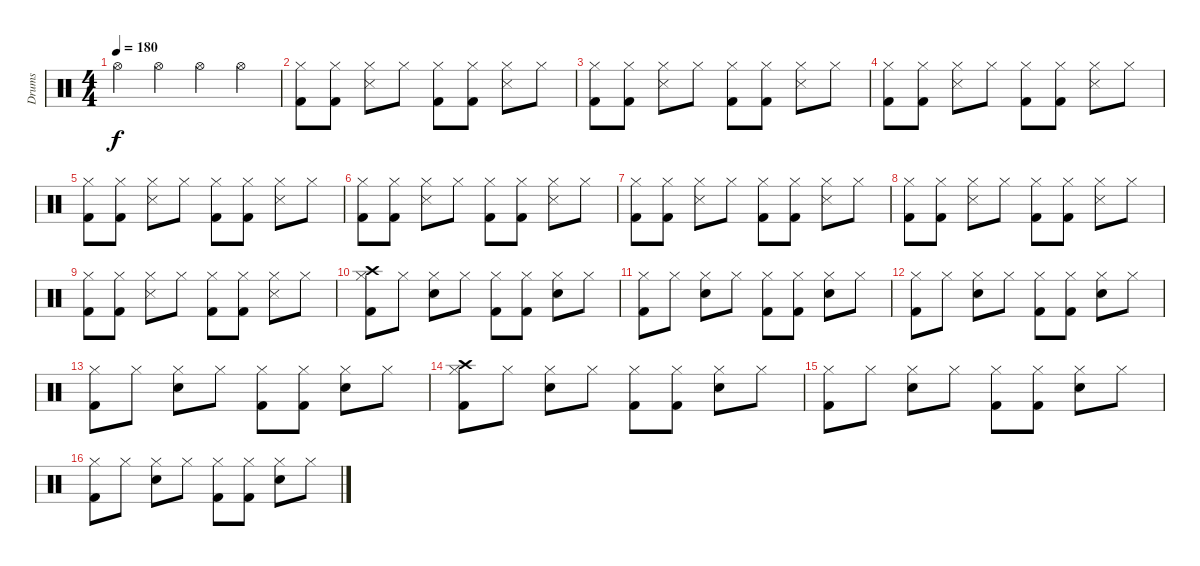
\track ("Drums" "Drums") {instrument percussion}
\staff {score}
\articulation defaults
\ts (4 4)
\tempo 180
\clef neutral
\ks c "Hi-Hat (open)".4{dy f} "Hi-Hat (open)".4 "Hi-Hat (open)".4 "Hi-Hat (open)".4
|
("Hi-Hat (closed)" "Kick (hit) 2").8 ("Hi-Hat (closed)" "Kick (hit) 2").8 ("Hi-Hat (closed)" "Snare (side stick) 3").8 "Hi-Hat (closed)".8 ("Hi-Hat (closed)" "Kick (hit) 2").8 ("Hi-Hat (closed)" "Kick (hit) 2").8 ("Hi-Hat (closed)" "Snare (side stick) 3").8 "Hi-Hat (closed)".8 |
("Hi-Hat (closed)" "Kick (hit) 2").8 ("Hi-Hat (closed)" "Kick (hit) 2").8 ("Hi-Hat (closed)" "Snare (side stick) 3").8 "Hi-Hat (closed)".8 ("Hi-Hat (closed)" "Kick (hit) 2").8 ("Hi-Hat (closed)" "Kick (hit) 2").8 ("Hi-Hat (closed)" "Snare (side stick) 3").8 "Hi-Hat (closed)".8 |
("Hi-Hat (closed)" "Kick (hit) 2").8 ("Hi-Hat (closed)" "Kick (hit) 2").8 ("Hi-Hat (closed)" "Snare (side stick) 3").8 "Hi-Hat (closed)".8 ("Hi-Hat (closed)" "Kick (hit) 2").8 ("Hi-Hat (closed)" "Kick (hit) 2").8 ("Hi-Hat (closed)" "Snare (side stick) 3").8 "Hi-Hat (closed)".8 |
("Hi-Hat (closed)" "Kick (hit) 2").8 ("Hi-Hat (closed)" "Kick (hit) 2").8 ("Hi-Hat (closed)" "Snare (side stick) 3").8 "Hi-Hat (closed)".8 ("Hi-Hat (closed)" "Kick (hit) 2").8 ("Hi-Hat (closed)" "Kick (hit) 2").8 ("Hi-Hat (closed)" "Snare (side stick) 3").8 "Hi-Hat (closed)".8 |
("Hi-Hat (closed)" "Kick (hit) 2").8 ("Hi-Hat (closed)" "Kick (hit) 2").8 ("Hi-Hat (closed)" "Snare (side stick) 3").8 "Hi-Hat (closed)".8 ("Hi-Hat (closed)" "Kick (hit) 2").8 ("Hi-Hat (closed)" "Kick (hit) 2").8 ("Hi-Hat (closed)" "Snare (side stick) 3").8 "Hi-Hat (closed)".8 |
("Hi-Hat (closed)" "Kick (hit) 2").8 ("Hi-Hat (closed)" "Kick (hit) 2").8 ("Hi-Hat (closed)" "Snare (side stick) 3").8 "Hi-Hat (closed)".8 ("Hi-Hat (closed)" "Kick (hit) 2").8 ("Hi-Hat (closed)" "Kick (hit) 2").8 ("Hi-Hat (closed)" "Snare (side stick) 3").8 "Hi-Hat (closed)".8 |
("Hi-Hat (closed)" "Kick (hit) 2").8 ("Hi-Hat (closed)" "Kick (hit) 2").8 ("Hi-Hat (closed)" "Snare (side stick) 3").8 "Hi-Hat (closed)".8 ("Hi-Hat (closed)" "Kick (hit) 2").8 ("Hi-Hat (closed)" "Kick (hit) 2").8 ("Hi-Hat (closed)" "Snare (side stick) 3").8 "Hi-Hat (closed)".8 |
("Hi-Hat (closed)" "Kick (hit) 2").8 ("Hi-Hat (closed)" "Kick (hit) 2").8 ("Hi-Hat (closed)" "Snare (side stick) 3").8 "Hi-Hat (closed)".8 ("Hi-Hat (closed)" "Kick (hit) 2").8 ("Hi-Hat (closed)" "Kick (hit) 2").8 ("Hi-Hat (closed)" "Snare (side stick) 3").8 "Hi-Hat (closed)".8 |
("Crash high (hit)" "Hi-Hat (closed)" "Kick (hit) 2").8 "Hi-Hat (closed)".8 ("Hi-Hat (closed)" "Snare (hit) 2").8 "Hi-Hat (closed)".8 ("Hi-Hat (closed)" "Kick (hit) 2").8 ("Hi-Hat (closed)" "Kick (hit) 2").8 ("Hi-Hat (closed)" "Snare (hit) 2").8 "Hi-Hat (closed)".8 |
("Hi-Hat (closed)" "Kick (hit) 2").8 "Hi-Hat (closed)".8 ("Hi-Hat (closed)" "Snare (hit) 2").8 "Hi-Hat (closed)".8 ("Hi-Hat (closed)" "Kick (hit) 2").8 ("Hi-Hat (closed)" "Kick (hit) 2").8 ("Hi-Hat (closed)" "Snare (hit) 2").8 "Hi-Hat (closed)".8 |
("Hi-Hat (closed)" "Kick (hit) 2").8 "Hi-Hat (closed)".8 ("Hi-Hat (closed)" "Snare (hit) 2").8 "Hi-Hat (closed)".8 ("Hi-Hat (closed)" "Kick (hit) 2").8 ("Hi-Hat (closed)" "Kick (hit) 2").8 ("Hi-Hat (closed)" "Snare (hit) 2").8 "Hi-Hat (closed)".8 |
("Hi-Hat (closed)" "Kick (hit) 2").8 "Hi-Hat (closed)".8 ("Hi-Hat (closed)" "Snare (hit) 2").8 "Hi-Hat (closed)".8 ("Hi-Hat (closed)" "Kick (hit) 2").8 ("Hi-Hat (closed)" "Kick (hit) 2").8 ("Hi-Hat (closed)" "Snare (hit) 2").8 "Hi-Hat (closed)".8 |
("Crash high (hit)" "Hi-Hat (closed)" "Kick (hit) 2").8 "Hi-Hat (closed)".8 ("Hi-Hat (closed)" "Snare (hit) 2").8 "Hi-Hat (closed)".8 ("Hi-Hat (closed)" "Kick (hit) 2").8 ("Hi-Hat (closed)" "Kick (hit) 2").8 ("Hi-Hat (closed)" "Snare (hit) 2").8 "Hi-Hat (closed)".8 |
("Hi-Hat (closed)" "Kick (hit) 2").8 "Hi-Hat (closed)".8 ("Hi-Hat (closed)" "Snare (hit) 2").8 "Hi-Hat (closed)".8 ("Hi-Hat (closed)" "Kick (hit) 2").8 ("Hi-Hat (closed)" "Kick (hit) 2").8 ("Hi-Hat (closed)" "Snare (hit) 2").8 "Hi-Hat (closed)".8 |
("Hi-Hat (closed)" "Kick (hit) 2").8 "Hi-Hat (closed)".8 ("Hi-Hat (closed)" "Snare (hit) 2").8 "Hi-Hat (closed)".8 ("Hi-Hat (closed)" "Kick (hit) 2").8 ("Hi-Hat (closed)" "Kick (hit) 2").8 ("Hi-Hat (closed)" "Snare (hit) 2").8 "Hi-Hat (closed)".8
